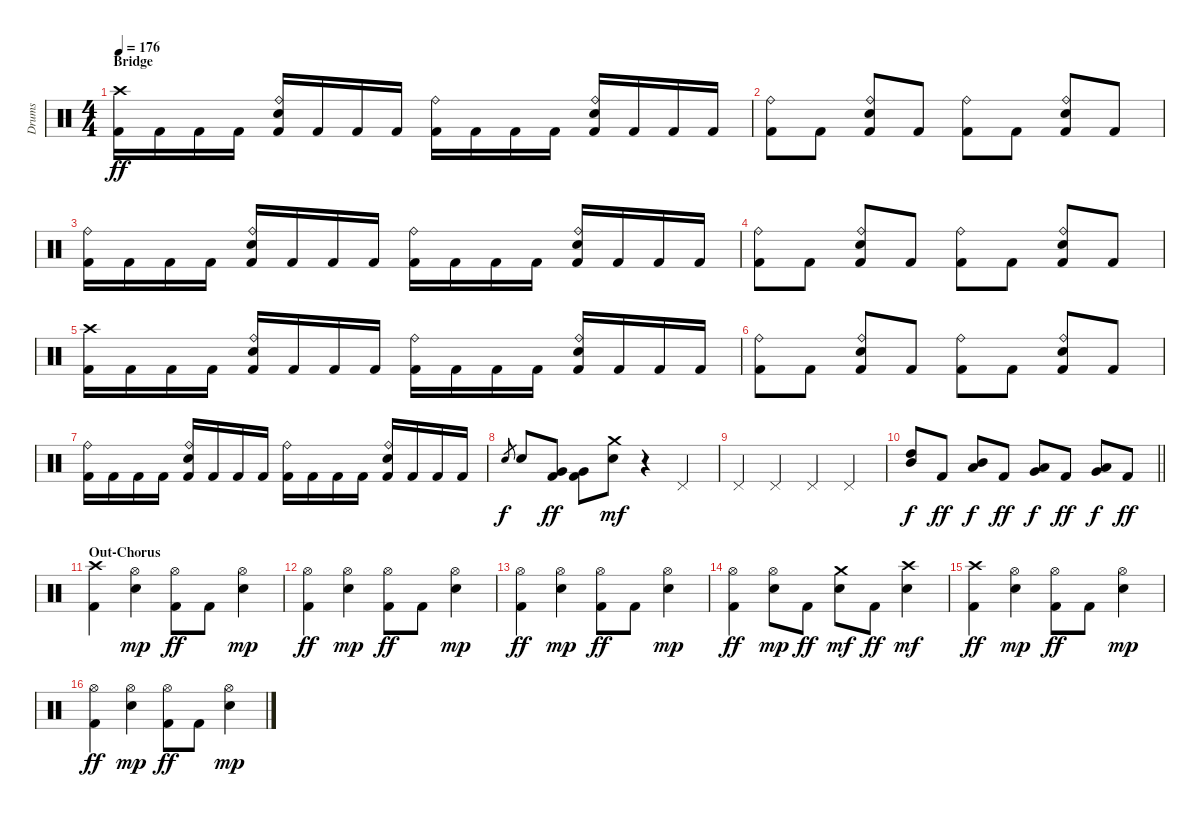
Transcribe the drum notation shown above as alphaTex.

\track ("Drums" "Drums") {instrument percussion}
\staff {score}
\articulation defaults
\ts (4 4)
\section ("" "Bridge")
\tempo 176
\clef neutral
\ks c
("Crash high (hit)" "Kick (hit) 2").16{dy ff} "Kick (hit) 2".16 "Kick (hit) 2".16 "Kick (hit) 2".16 ("Ride (bell)" "Electric Snare (hit)" "Kick (hit) 2").16 "Kick (hit) 2".16 "Kick (hit) 2".16 "Kick (hit) 2".16 ("Ride (bell)" "Kick (hit) 2").16 "Kick (hit) 2".16 "Kick (hit) 2".16 "Kick (hit) 2".16 ("Ride (bell)" "Electric Snare (hit)" "Kick (hit) 2").16 "Kick (hit) 2".16 "Kick (hit) 2".16 "Kick (hit) 2".16 |
("Ride (bell)" "Kick (hit) 2").8 "Kick (hit) 2".8 ("Ride (bell)" "Electric Snare (hit)" "Kick (hit) 2").8 "Kick (hit) 2".8 ("Ride (bell)" "Kick (hit) 2").8 "Kick (hit) 2".8 ("Ride (bell)" "Electric Snare (hit)" "Kick (hit) 2").8 "Kick (hit) 2".8 |
("Ride (bell)" "Kick (hit) 2").16 "Kick (hit) 2".16 "Kick (hit) 2".16 "Kick (hit) 2".16 ("Ride (bell)" "Electric Snare (hit)" "Kick (hit) 2").16 "Kick (hit) 2".16 "Kick (hit) 2".16 "Kick (hit) 2".16 ("Ride (bell)" "Kick (hit) 2").16 "Kick (hit) 2".16 "Kick (hit) 2".16 "Kick (hit) 2".16 ("Ride (bell)" "Electric Snare (hit)" "Kick (hit) 2").16 "Kick (hit) 2".16 "Kick (hit) 2".16 "Kick (hit) 2".16 |
("Ride (bell)" "Kick (hit) 2").8 "Kick (hit) 2".8 ("Ride (bell)" "Electric Snare (hit)" "Kick (hit) 2").8 "Kick (hit) 2".8 ("Ride (bell)" "Kick (hit) 2").8 "Kick (hit) 2".8 ("Ride (bell)" "Electric Snare (hit)" "Kick (hit) 2").8 "Kick (hit) 2".8 |
("Crash high (hit)" "Kick (hit) 2").16 "Kick (hit) 2".16 "Kick (hit) 2".16 "Kick (hit) 2".16 ("Ride (bell)" "Electric Snare (hit)" "Kick (hit) 2").16 "Kick (hit) 2".16 "Kick (hit) 2".16 "Kick (hit) 2".16 ("Ride (bell)" "Kick (hit) 2").16 "Kick (hit) 2".16 "Kick (hit) 2".16 "Kick (hit) 2".16 ("Ride (bell)" "Electric Snare (hit)" "Kick (hit) 2").16 "Kick (hit) 2".16 "Kick (hit) 2".16 "Kick (hit) 2".16 |
("Ride (bell)" "Kick (hit) 2").8 "Kick (hit) 2".8 ("Ride (bell)" "Electric Snare (hit)" "Kick (hit) 2").8 "Kick (hit) 2".8 ("Ride (bell)" "Kick (hit) 2").8 "Kick (hit) 2".8 ("Ride (bell)" "Electric Snare (hit)" "Kick (hit) 2").8 "Kick (hit) 2".8 |
("Ride (bell)" "Kick (hit) 2").16 "Kick (hit) 2".16 "Kick (hit) 2".16 "Kick (hit) 2".16 ("Ride (bell)" "Electric Snare (hit)" "Kick (hit) 2").16 "Kick (hit) 2".16 "Kick (hit) 2".16 "Kick (hit) 2".16 ("Ride (bell)" "Kick (hit) 2").16 "Kick (hit) 2".16 "Kick (hit) 2".16 "Kick (hit) 2".16 ("Ride (bell)" "Electric Snare (hit)" "Kick (hit) 2").16 "Kick (hit) 2".16 "Kick (hit) 2".16 "Kick (hit) 2".16 |
"Electric Snare (hit)".8{gr dy f} "Electric Snare (hit)".8 ("Very Low Tom (hit)" "Kick (hit) 2").8{dy ff} ("Very Low Tom (hit)" "Kick (hit) 2").8 ("Crash medium (hit)" "Electric Snare (hit)").8{dy mf} r.4 "Pedal Hi-Hat (hit)".4 |
"Pedal Hi-Hat (hit)".4 "Pedal Hi-Hat (hit)".4 "Pedal Hi-Hat (hit)".4 "Pedal Hi-Hat (hit)".4 |
\barLineRight lightlight
("High Tom (hit)" "Mid Tom (hit)").8{dy f} "Kick (hit) 2".8{dy ff} ("Mid Tom (hit)" "Low Tom (hit)").8{dy f} "Kick (hit) 2".8{dy ff} ("Low Tom (hit)" "Very Low Tom (hit)").8{dy f} "Kick (hit) 2".8{dy ff} ("Very Low Tom (hit)" "Low Floor Tom (hit)").8{dy f} "Kick (hit) 2".8{dy ff} |
\section ("" "Out-Chorus")
("Crash high (hit)" "Kick (hit) 2").4 ("Hi-Hat (open)" "Electric Snare (hit)").4{dy mp} ("Hi-Hat (open)" "Kick (hit) 2").8{dy ff} "Kick (hit) 2".8 ("Hi-Hat (open)" "Electric Snare (hit)").4{dy mp} |
("Hi-Hat (open)" "Kick (hit) 2").4{dy ff} ("Hi-Hat (open)" "Electric Snare (hit)").4{dy mp} ("Hi-Hat (open)" "Kick (hit) 2").8{dy ff} "Kick (hit) 2".8 ("Hi-Hat (open)" "Electric Snare (hit)").4{dy mp} |
("Hi-Hat (open)" "Kick (hit) 2").4{dy ff} ("Hi-Hat (open)" "Electric Snare (hit)").4{dy mp} ("Hi-Hat (open)" "Kick (hit) 2").8{dy ff} "Kick (hit) 2".8 ("Hi-Hat (open)" "Electric Snare (hit)").4{dy mp} |
("Hi-Hat (open)" "Kick (hit) 2").4{dy ff} ("Hi-Hat (open)" "Electric Snare (hit)").8{dy mp} "Kick (hit) 2".8{dy ff} ("Crash medium (hit)" "Electric Snare (hit)").8{dy mf} "Kick (hit) 2".8{dy ff} ("Crash high (hit)" "Electric Snare (hit)").4{dy mf} |
("Crash high (hit)" "Kick (hit) 2").4{dy ff} ("Hi-Hat (open)" "Electric Snare (hit)").4{dy mp} ("Hi-Hat (open)" "Kick (hit) 2").8{dy ff} "Kick (hit) 2".8 ("Hi-Hat (open)" "Electric Snare (hit)").4{dy mp} |
("Hi-Hat (open)" "Kick (hit) 2").4{dy ff} ("Hi-Hat (open)" "Electric Snare (hit)").4{dy mp} ("Hi-Hat (open)" "Kick (hit) 2").8{dy ff} "Kick (hit) 2".8 ("Hi-Hat (open)" "Electric Snare (hit)").4{dy mp}
